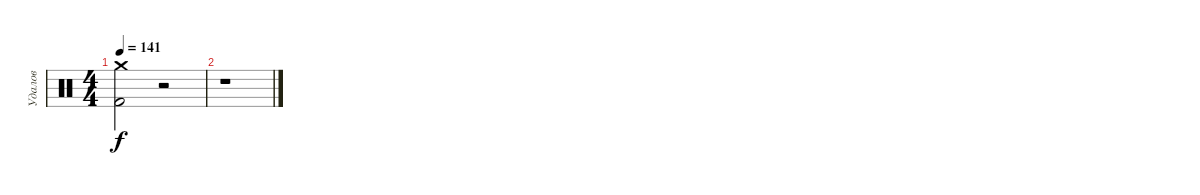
\track ("Удалов" "Удалов") {instrument percussion}
\staff {score}
\articulation defaults
\ts (4 4)
\tempo 141
\clef neutral
\ks c
("Crash medium (hit)" "Kick (hit) 2").2{dy f} r.2 |
r.1
